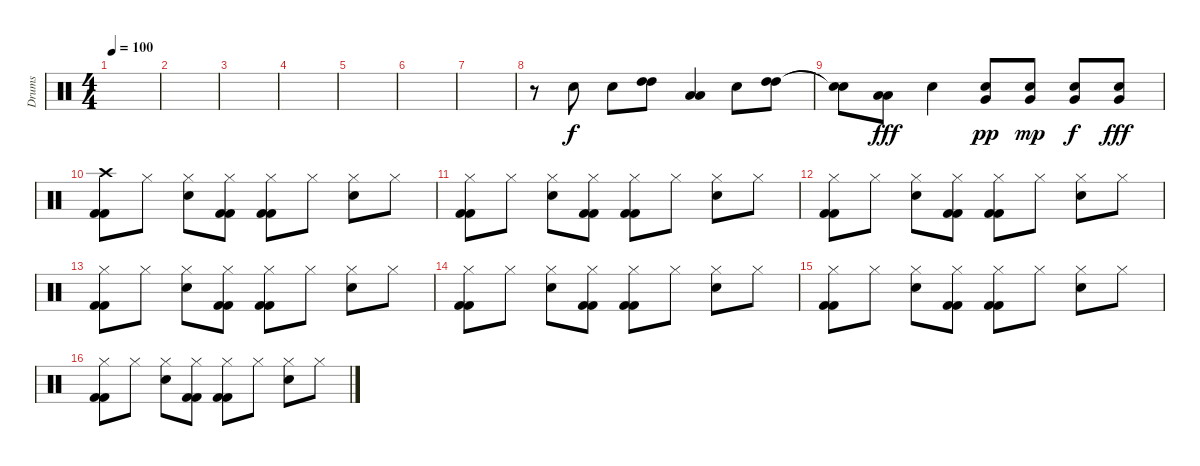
\track ("Drums" "Drums") {instrument percussion}
\staff {score}
\articulation defaults
\ts (4 4)
\tempo 100
\clef neutral
\ks c
|
|
|
|
|
|
|
r.8 "Electric Snare (hit)".8 "Electric Snare (hit)".8 ("High Tom (hit)" "High Tom (hit)").8 ("Low Tom (hit)" "Low Tom (hit)").4 "Electric Snare (hit)".8 ("High Tom (hit)" "High Tom (hit)").8 |
("Snare (hit)"{t} "Snare (hit)"{t}).8{dy f} ("Low Tom (hit)" "Low Tom (hit)").8{dy fff} "Electric Snare (hit)".4 ("Very Low Tom (hit)" "Electric Snare (hit)").8{dy pp} ("Very Low Tom (hit)" "Electric Snare (hit)").8{dy mp} ("Very Low Tom (hit)" "Electric Snare (hit)").8{dy f} ("Very Low Tom (hit)" "Electric Snare (hit)").8{dy fff} |
("Crash high (hit)" "Kick (hit) 2" "Kick (hit) 2").8 "Hi-Hat (closed)".8 ("Hi-Hat (closed)" "Electric Snare (hit)").8 ("Hi-Hat (closed)" "Kick (hit) 2" "Kick (hit) 2").8 ("Hi-Hat (closed)" "Kick (hit) 2" "Kick (hit) 2").8 "Hi-Hat (closed)".8 ("Hi-Hat (closed)" "Electric Snare (hit)").8 "Hi-Hat (closed)".8 |
("Hi-Hat (closed)" "Kick (hit) 2" "Kick (hit) 2").8 "Hi-Hat (closed)".8 ("Hi-Hat (closed)" "Electric Snare (hit)").8 ("Hi-Hat (closed)" "Kick (hit) 2" "Kick (hit) 2").8 ("Hi-Hat (closed)" "Kick (hit) 2" "Kick (hit) 2").8 "Hi-Hat (closed)".8 ("Hi-Hat (closed)" "Electric Snare (hit)").8 "Hi-Hat (closed)".8 |
("Hi-Hat (closed)" "Kick (hit) 2" "Kick (hit) 2").8 "Hi-Hat (closed)".8 ("Hi-Hat (closed)" "Electric Snare (hit)").8 ("Hi-Hat (closed)" "Kick (hit) 2" "Kick (hit) 2").8 ("Hi-Hat (closed)" "Kick (hit) 2" "Kick (hit) 2").8 "Hi-Hat (closed)".8 ("Hi-Hat (closed)" "Electric Snare (hit)").8 "Hi-Hat (closed)".8 |
("Hi-Hat (closed)" "Kick (hit) 2" "Kick (hit) 2").8 "Hi-Hat (closed)".8 ("Hi-Hat (closed)" "Electric Snare (hit)").8 ("Hi-Hat (closed)" "Kick (hit) 2" "Kick (hit) 2").8 ("Hi-Hat (closed)" "Kick (hit) 2" "Kick (hit) 2").8 "Hi-Hat (closed)".8 ("Hi-Hat (closed)" "Electric Snare (hit)").8 "Hi-Hat (closed)".8 |
("Hi-Hat (closed)" "Kick (hit) 2" "Kick (hit) 2").8 "Hi-Hat (closed)".8 ("Hi-Hat (closed)" "Electric Snare (hit)").8 ("Hi-Hat (closed)" "Kick (hit) 2" "Kick (hit) 2").8 ("Hi-Hat (closed)" "Kick (hit) 2" "Kick (hit) 2").8 "Hi-Hat (closed)".8 ("Hi-Hat (closed)" "Electric Snare (hit)").8 "Hi-Hat (closed)".8 |
("Hi-Hat (closed)" "Kick (hit) 2" "Kick (hit) 2").8 "Hi-Hat (closed)".8 ("Hi-Hat (closed)" "Electric Snare (hit)").8 ("Hi-Hat (closed)" "Kick (hit) 2" "Kick (hit) 2").8 ("Hi-Hat (closed)" "Kick (hit) 2" "Kick (hit) 2").8 "Hi-Hat (closed)".8 ("Hi-Hat (closed)" "Electric Snare (hit)").8 "Hi-Hat (closed)".8 |
("Hi-Hat (closed)" "Kick (hit) 2" "Kick (hit) 2").8 "Hi-Hat (closed)".8 ("Hi-Hat (closed)" "Electric Snare (hit)").8 ("Hi-Hat (closed)" "Kick (hit) 2" "Kick (hit) 2").8 ("Hi-Hat (closed)" "Kick (hit) 2" "Kick (hit) 2").8 "Hi-Hat (closed)".8 ("Hi-Hat (closed)" "Electric Snare (hit)").8 "Hi-Hat (closed)".8
